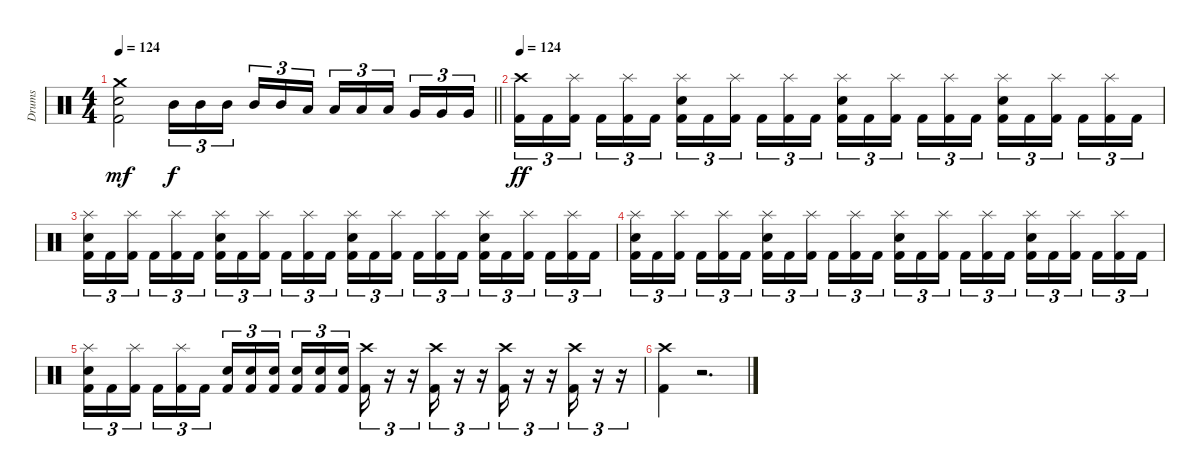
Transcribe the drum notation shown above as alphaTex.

\track ("Drums" "Drums") {instrument percussion}
\staff {score}
\articulation defaults
\ts (4 4)
\tempo 124
\clef neutral
\barLineRight lightlight
\ks c
("Crash medium (hit)" "Electric Snare (hit)" "Kick (hit) 2").2{dy mf} "Mid Tom (hit)".16{tu (3 2) dy f} "Mid Tom (hit)".16{tu (3 2)} "Mid Tom (hit)".16{tu (3 2)} "Mid Tom (hit)".16{tu (3 2)} "Mid Tom (hit)".16{tu (3 2)} "Low Tom (hit)".16{tu (3 2)} "Low Tom (hit)".16{tu (3 2)} "Low Tom (hit)".16{tu (3 2)} "Low Tom (hit)".16{tu (3 2)} "Very Low Tom (hit)".16{tu (3 2)} "Very Low Tom (hit)".16{tu (3 2)} "Very Low Tom (hit)".16{tu (3 2)} |
\tempo 124
("Crash high (hit)" "Kick (hit) 2").16{tu (3 2) dy ff} "Kick (hit) 2".16{tu (3 2)} ("Splash (hit)" "Kick (hit) 2").16{tu (3 2)} "Kick (hit) 2".16{tu (3 2)} ("Splash (hit)" "Kick (hit) 2").16{tu (3 2)} "Kick (hit) 2".16{tu (3 2)} ("Splash (hit)" "Electric Snare (hit)" "Kick (hit) 2").16{tu (3 2)} "Kick (hit) 2".16{tu (3 2)} ("Splash (hit)" "Kick (hit) 2").16{tu (3 2)} "Kick (hit) 2".16{tu (3 2)} ("Splash (hit)" "Kick (hit) 2").16{tu (3 2)} "Kick (hit) 2".16{tu (3 2)} ("Splash (hit)" "Electric Snare (hit)" "Kick (hit) 2").16{tu (3 2)} "Kick (hit) 2".16{tu (3 2)} ("Splash (hit)" "Kick (hit) 2").16{tu (3 2)} "Kick (hit) 2".16{tu (3 2)} ("Splash (hit)" "Kick (hit) 2").16{tu (3 2)} "Kick (hit) 2".16{tu (3 2)} ("Splash (hit)" "Electric Snare (hit)" "Kick (hit) 2").16{tu (3 2)} "Kick (hit) 2".16{tu (3 2)} ("Splash (hit)" "Kick (hit) 2").16{tu (3 2)} "Kick (hit) 2".16{tu (3 2)} ("Splash (hit)" "Kick (hit) 2").16{tu (3 2)} "Kick (hit) 2".16{tu (3 2)} |
("Splash (hit)" "Electric Snare (hit)" "Kick (hit) 2").16{tu (3 2)} "Kick (hit) 2".16{tu (3 2)} ("Splash (hit)" "Kick (hit) 2").16{tu (3 2)} "Kick (hit) 2".16{tu (3 2)} ("Splash (hit)" "Kick (hit) 2").16{tu (3 2)} "Kick (hit) 2".16{tu (3 2)} ("Splash (hit)" "Electric Snare (hit)" "Kick (hit) 2").16{tu (3 2)} "Kick (hit) 2".16{tu (3 2)} ("Splash (hit)" "Kick (hit) 2").16{tu (3 2)} "Kick (hit) 2".16{tu (3 2)} ("Splash (hit)" "Kick (hit) 2").16{tu (3 2)} "Kick (hit) 2".16{tu (3 2)} ("Splash (hit)" "Electric Snare (hit)" "Kick (hit) 2").16{tu (3 2)} "Kick (hit) 2".16{tu (3 2)} ("Splash (hit)" "Kick (hit) 2").16{tu (3 2)} "Kick (hit) 2".16{tu (3 2)} ("Splash (hit)" "Kick (hit) 2").16{tu (3 2)} "Kick (hit) 2".16{tu (3 2)} ("Splash (hit)" "Electric Snare (hit)" "Kick (hit) 2").16{tu (3 2)} "Kick (hit) 2".16{tu (3 2)} ("Splash (hit)" "Kick (hit) 2").16{tu (3 2)} "Kick (hit) 2".16{tu (3 2)} ("Splash (hit)" "Kick (hit) 2").16{tu (3 2)} "Kick (hit) 2".16{tu (3 2)} |
("Splash (hit)" "Electric Snare (hit)" "Kick (hit) 2").16{tu (3 2)} "Kick (hit) 2".16{tu (3 2)} ("Splash (hit)" "Kick (hit) 2").16{tu (3 2)} "Kick (hit) 2".16{tu (3 2)} ("Splash (hit)" "Kick (hit) 2").16{tu (3 2)} "Kick (hit) 2".16{tu (3 2)} ("Splash (hit)" "Electric Snare (hit)" "Kick (hit) 2").16{tu (3 2)} "Kick (hit) 2".16{tu (3 2)} ("Splash (hit)" "Kick (hit) 2").16{tu (3 2)} "Kick (hit) 2".16{tu (3 2)} ("Splash (hit)" "Kick (hit) 2").16{tu (3 2)} "Kick (hit) 2".16{tu (3 2)} ("Splash (hit)" "Electric Snare (hit)" "Kick (hit) 2").16{tu (3 2)} "Kick (hit) 2".16{tu (3 2)} ("Splash (hit)" "Kick (hit) 2").16{tu (3 2)} "Kick (hit) 2".16{tu (3 2)} ("Splash (hit)" "Kick (hit) 2").16{tu (3 2)} "Kick (hit) 2".16{tu (3 2)} ("Splash (hit)" "Electric Snare (hit)" "Kick (hit) 2").16{tu (3 2)} "Kick (hit) 2".16{tu (3 2)} ("Splash (hit)" "Kick (hit) 2").16{tu (3 2)} "Kick (hit) 2".16{tu (3 2)} ("Splash (hit)" "Kick (hit) 2").16{tu (3 2)} "Kick (hit) 2".16{tu (3 2)} |
("Splash (hit)" "Electric Snare (hit)" "Kick (hit) 2").16{tu (3 2)} "Kick (hit) 2".16{tu (3 2)} ("Splash (hit)" "Kick (hit) 2").16{tu (3 2)} "Kick (hit) 2".16{tu (3 2)} ("Splash (hit)" "Kick (hit) 2").16{tu (3 2)} "Kick (hit) 2".16{tu (3 2)} ("Electric Snare (hit)" "Kick (hit) 2").16{tu (3 2)} ("Electric Snare (hit)" "Kick (hit) 2").16{tu (3 2)} ("Electric Snare (hit)" "Kick (hit) 2").16{tu (3 2)} ("Electric Snare (hit)" "Kick (hit) 2").16{tu (3 2)} ("Electric Snare (hit)" "Kick (hit) 2").16{tu (3 2)} ("Electric Snare (hit)" "Kick (hit) 2").16{tu (3 2)} ("Crash high (hit)" "Kick (hit) 2").16{tu (3 2)} r.16{tu (3 2)} r.16{tu (3 2)} ("Crash high (hit)" "Kick (hit) 2").16{tu (3 2)} r.16{tu (3 2)} r.16{tu (3 2)} ("Crash high (hit)" "Kick (hit) 2").16{tu (3 2)} r.16{tu (3 2)} r.16{tu (3 2)} ("Crash high (hit)" "Kick (hit) 2").16{tu (3 2)} r.16{tu (3 2)} r.16{tu (3 2)} |
("Crash high (hit)" "Kick (hit) 2").4 r.2{d}
